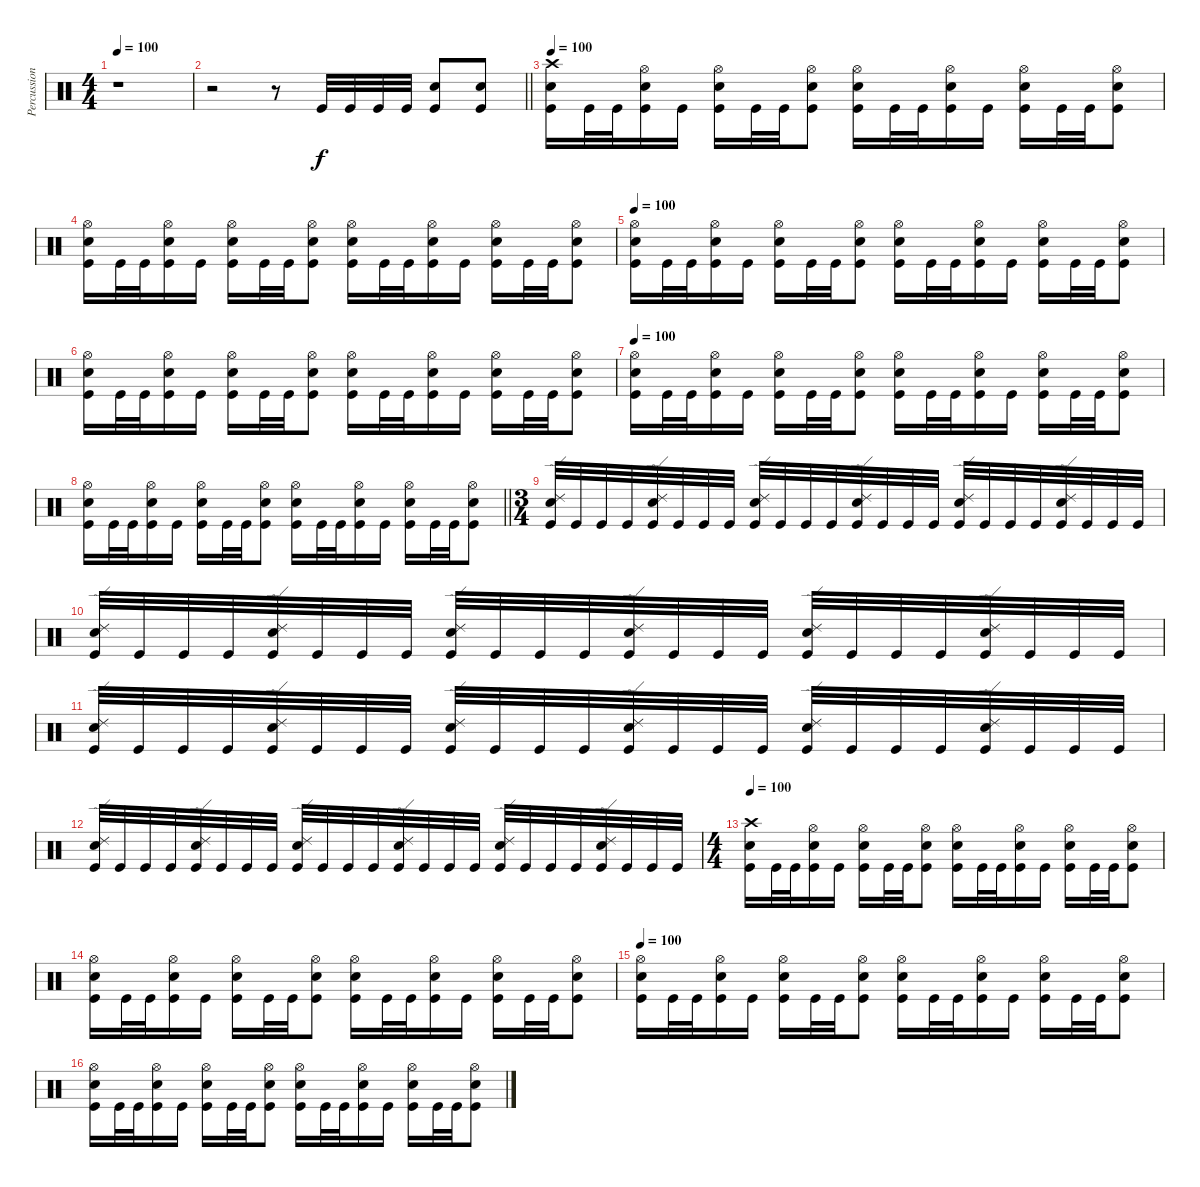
\track ("Percussion" "Percussion") {instrument percussion}
\staff {score}
\articulation defaults
\ts (4 4)
\tempo 100
\clef neutral
\ks c
r.1{dy f} |
\barLineRight lightlight
r.2 r.8 "Kick (hit)".32 "Kick (hit)".32 "Kick (hit)".32 "Kick (hit)".32 ("Snare (hit) 2" "Kick (hit)").8 ("Snare (hit) 2" "Kick (hit)").8 |
\tempo 100
("Crash high (hit)" "Snare (hit) 2" "Kick (hit)").16 "Kick (hit)".32 "Kick (hit)".32 ("Hi-Hat (open)" "Snare (hit) 2" "Kick (hit)").16 "Kick (hit)".16 ("Hi-Hat (open)" "Snare (hit) 2" "Kick (hit)").16 "Kick (hit)".32 "Kick (hit)".32 ("Hi-Hat (open)" "Snare (hit) 2" "Kick (hit)").8 ("Hi-Hat (open)" "Snare (hit) 2" "Kick (hit)").16 "Kick (hit)".32 "Kick (hit)".32 ("Hi-Hat (open)" "Snare (hit) 2" "Kick (hit)").16 "Kick (hit)".16 ("Hi-Hat (open)" "Snare (hit) 2" "Kick (hit)").16 "Kick (hit)".32 "Kick (hit)".32 ("Hi-Hat (open)" "Snare (hit) 2" "Kick (hit)").8 |
("Hi-Hat (open)" "Snare (hit) 2" "Kick (hit)").16 "Kick (hit)".32 "Kick (hit)".32 ("Hi-Hat (open)" "Snare (hit) 2" "Kick (hit)").16 "Kick (hit)".16 ("Hi-Hat (open)" "Snare (hit) 2" "Kick (hit)").16 "Kick (hit)".32 "Kick (hit)".32 ("Hi-Hat (open)" "Snare (hit) 2" "Kick (hit)").8 ("Hi-Hat (open)" "Snare (hit) 2" "Kick (hit)").16 "Kick (hit)".32 "Kick (hit)".32 ("Hi-Hat (open)" "Snare (hit) 2" "Kick (hit)").16 "Kick (hit)".16 ("Hi-Hat (open)" "Snare (hit) 2" "Kick (hit)").16 "Kick (hit)".32 "Kick (hit)".32 ("Hi-Hat (open)" "Snare (hit) 2" "Kick (hit)").8 |
\tempo 100
("Hi-Hat (open)" "Snare (hit) 2" "Kick (hit)").16 "Kick (hit)".32 "Kick (hit)".32 ("Hi-Hat (open)" "Snare (hit) 2" "Kick (hit)").16 "Kick (hit)".16 ("Hi-Hat (open)" "Snare (hit) 2" "Kick (hit)").16 "Kick (hit)".32 "Kick (hit)".32 ("Hi-Hat (open)" "Snare (hit) 2" "Kick (hit)").8 ("Hi-Hat (open)" "Snare (hit) 2" "Kick (hit)").16 "Kick (hit)".32 "Kick (hit)".32 ("Hi-Hat (open)" "Snare (hit) 2" "Kick (hit)").16 "Kick (hit)".16 ("Hi-Hat (open)" "Snare (hit) 2" "Kick (hit)").16 "Kick (hit)".32 "Kick (hit)".32 ("Hi-Hat (open)" "Snare (hit) 2" "Kick (hit)").8 |
("Hi-Hat (open)" "Snare (hit) 2" "Kick (hit)").16 "Kick (hit)".32 "Kick (hit)".32 ("Hi-Hat (open)" "Snare (hit) 2" "Kick (hit)").16 "Kick (hit)".16 ("Hi-Hat (open)" "Snare (hit) 2" "Kick (hit)").16 "Kick (hit)".32 "Kick (hit)".32 ("Hi-Hat (open)" "Snare (hit) 2" "Kick (hit)").8 ("Hi-Hat (open)" "Snare (hit) 2" "Kick (hit)").16 "Kick (hit)".32 "Kick (hit)".32 ("Hi-Hat (open)" "Snare (hit) 2" "Kick (hit)").16 "Kick (hit)".16 ("Hi-Hat (open)" "Snare (hit) 2" "Kick (hit)").16 "Kick (hit)".32 "Kick (hit)".32 ("Hi-Hat (open)" "Snare (hit) 2" "Kick (hit)").8 |
\tempo 100
("Hi-Hat (open)" "Snare (hit) 2" "Kick (hit)").16 "Kick (hit)".32 "Kick (hit)".32 ("Hi-Hat (open)" "Snare (hit) 2" "Kick (hit)").16 "Kick (hit)".16 ("Hi-Hat (open)" "Snare (hit) 2" "Kick (hit)").16 "Kick (hit)".32 "Kick (hit)".32 ("Hi-Hat (open)" "Snare (hit) 2" "Kick (hit)").8 ("Hi-Hat (open)" "Snare (hit) 2" "Kick (hit)").16 "Kick (hit)".32 "Kick (hit)".32 ("Hi-Hat (open)" "Snare (hit) 2" "Kick (hit)").16 "Kick (hit)".16 ("Hi-Hat (open)" "Snare (hit) 2" "Kick (hit)").16 "Kick (hit)".32 "Kick (hit)".32 ("Hi-Hat (open)" "Snare (hit) 2" "Kick (hit)").8 |
\barLineRight lightlight
("Hi-Hat (open)" "Snare (hit) 2" "Kick (hit)").16 "Kick (hit)".32 "Kick (hit)".32 ("Hi-Hat (open)" "Snare (hit) 2" "Kick (hit)").16 "Kick (hit)".16 ("Hi-Hat (open)" "Snare (hit) 2" "Kick (hit)").16 "Kick (hit)".32 "Kick (hit)".32 ("Hi-Hat (open)" "Snare (hit) 2" "Kick (hit)").8 ("Hi-Hat (open)" "Snare (hit) 2" "Kick (hit)").16 "Kick (hit)".32 "Kick (hit)".32 ("Hi-Hat (open)" "Snare (hit) 2" "Kick (hit)").16 "Kick (hit)".16 ("Hi-Hat (open)" "Snare (hit) 2" "Kick (hit)").16 "Kick (hit)".32 "Kick (hit)".32 ("Hi-Hat (open)" "Snare (hit) 2" "Kick (hit)").8 |
\ts (3 4)
("Ride (edge) 2" "Snare (hit) 2" "Kick (hit)").32 "Kick (hit)".32 "Kick (hit)".32 "Kick (hit)".32 ("Ride (edge) 2" "Snare (hit) 2" "Kick (hit)").32 "Kick (hit)".32 "Kick (hit)".32 "Kick (hit)".32 ("Ride (edge) 2" "Snare (hit) 2" "Kick (hit)").32 "Kick (hit)".32 "Kick (hit)".32 "Kick (hit)".32 ("Ride (edge) 2" "Snare (hit) 2" "Kick (hit)").32 "Kick (hit)".32 "Kick (hit)".32 "Kick (hit)".32 ("Ride (edge) 2" "Snare (hit) 2" "Kick (hit)").32 "Kick (hit)".32 "Kick (hit)".32 "Kick (hit)".32 ("Ride (edge) 2" "Snare (hit) 2" "Kick (hit)").32 "Kick (hit)".32 "Kick (hit)".32 "Kick (hit)".32 |
("Ride (edge) 2" "Snare (hit) 2" "Kick (hit)").32 "Kick (hit)".32 "Kick (hit)".32 "Kick (hit)".32 ("Ride (edge) 2" "Snare (hit) 2" "Kick (hit)").32 "Kick (hit)".32 "Kick (hit)".32 "Kick (hit)".32 ("Ride (edge) 2" "Snare (hit) 2" "Kick (hit)").32 "Kick (hit)".32 "Kick (hit)".32 "Kick (hit)".32 ("Ride (edge) 2" "Snare (hit) 2" "Kick (hit)").32 "Kick (hit)".32 "Kick (hit)".32 "Kick (hit)".32 ("Ride (edge) 2" "Snare (hit) 2" "Kick (hit)").32 "Kick (hit)".32 "Kick (hit)".32 "Kick (hit)".32 ("Ride (edge) 2" "Snare (hit) 2" "Kick (hit)").32 "Kick (hit)".32 "Kick (hit)".32 "Kick (hit)".32 |
("Ride (edge) 2" "Snare (hit) 2" "Kick (hit)").32 "Kick (hit)".32 "Kick (hit)".32 "Kick (hit)".32 ("Ride (edge) 2" "Snare (hit) 2" "Kick (hit)").32 "Kick (hit)".32 "Kick (hit)".32 "Kick (hit)".32 ("Ride (edge) 2" "Snare (hit) 2" "Kick (hit)").32 "Kick (hit)".32 "Kick (hit)".32 "Kick (hit)".32 ("Ride (edge) 2" "Snare (hit) 2" "Kick (hit)").32 "Kick (hit)".32 "Kick (hit)".32 "Kick (hit)".32 ("Ride (edge) 2" "Snare (hit) 2" "Kick (hit)").32 "Kick (hit)".32 "Kick (hit)".32 "Kick (hit)".32 ("Ride (edge) 2" "Snare (hit) 2" "Kick (hit)").32 "Kick (hit)".32 "Kick (hit)".32 "Kick (hit)".32 |
("Ride (edge) 2" "Snare (hit) 2" "Kick (hit)").32 "Kick (hit)".32 "Kick (hit)".32 "Kick (hit)".32 ("Ride (edge) 2" "Snare (hit) 2" "Kick (hit)").32 "Kick (hit)".32 "Kick (hit)".32 "Kick (hit)".32 ("Ride (edge) 2" "Snare (hit) 2" "Kick (hit)").32 "Kick (hit)".32 "Kick (hit)".32 "Kick (hit)".32 ("Ride (edge) 2" "Snare (hit) 2" "Kick (hit)").32 "Kick (hit)".32 "Kick (hit)".32 "Kick (hit)".32 ("Ride (edge) 2" "Snare (hit) 2" "Kick (hit)").32 "Kick (hit)".32 "Kick (hit)".32 "Kick (hit)".32 ("Ride (edge) 2" "Snare (hit) 2" "Kick (hit)").32 "Kick (hit)".32 "Kick (hit)".32 "Kick (hit)".32 |
\ts (4 4)
\tempo 100
("Crash high (hit)" "Snare (hit) 2" "Kick (hit)").16 "Kick (hit)".32 "Kick (hit)".32 ("Hi-Hat (open)" "Snare (hit) 2" "Kick (hit)").16 "Kick (hit)".16 ("Hi-Hat (open)" "Snare (hit) 2" "Kick (hit)").16 "Kick (hit)".32 "Kick (hit)".32 ("Hi-Hat (open)" "Snare (hit) 2" "Kick (hit)").8 ("Hi-Hat (open)" "Snare (hit) 2" "Kick (hit)").16 "Kick (hit)".32 "Kick (hit)".32 ("Hi-Hat (open)" "Snare (hit) 2" "Kick (hit)").16 "Kick (hit)".16 ("Hi-Hat (open)" "Snare (hit) 2" "Kick (hit)").16 "Kick (hit)".32 "Kick (hit)".32 ("Hi-Hat (open)" "Snare (hit) 2" "Kick (hit)").8 |
("Hi-Hat (open)" "Snare (hit) 2" "Kick (hit)").16 "Kick (hit)".32 "Kick (hit)".32 ("Hi-Hat (open)" "Snare (hit) 2" "Kick (hit)").16 "Kick (hit)".16 ("Hi-Hat (open)" "Snare (hit) 2" "Kick (hit)").16 "Kick (hit)".32 "Kick (hit)".32 ("Hi-Hat (open)" "Snare (hit) 2" "Kick (hit)").8 ("Hi-Hat (open)" "Snare (hit) 2" "Kick (hit)").16 "Kick (hit)".32 "Kick (hit)".32 ("Hi-Hat (open)" "Snare (hit) 2" "Kick (hit)").16 "Kick (hit)".16 ("Hi-Hat (open)" "Snare (hit) 2" "Kick (hit)").16 "Kick (hit)".32 "Kick (hit)".32 ("Hi-Hat (open)" "Snare (hit) 2" "Kick (hit)").8 |
\tempo 100
("Hi-Hat (open)" "Snare (hit) 2" "Kick (hit)").16 "Kick (hit)".32 "Kick (hit)".32 ("Hi-Hat (open)" "Snare (hit) 2" "Kick (hit)").16 "Kick (hit)".16 ("Hi-Hat (open)" "Snare (hit) 2" "Kick (hit)").16 "Kick (hit)".32 "Kick (hit)".32 ("Hi-Hat (open)" "Snare (hit) 2" "Kick (hit)").8 ("Hi-Hat (open)" "Snare (hit) 2" "Kick (hit)").16 "Kick (hit)".32 "Kick (hit)".32 ("Hi-Hat (open)" "Snare (hit) 2" "Kick (hit)").16 "Kick (hit)".16 ("Hi-Hat (open)" "Snare (hit) 2" "Kick (hit)").16 "Kick (hit)".32 "Kick (hit)".32 ("Hi-Hat (open)" "Snare (hit) 2" "Kick (hit)").8 |
("Hi-Hat (open)" "Snare (hit) 2" "Kick (hit)").16 "Kick (hit)".32 "Kick (hit)".32 ("Hi-Hat (open)" "Snare (hit) 2" "Kick (hit)").16 "Kick (hit)".16 ("Hi-Hat (open)" "Snare (hit) 2" "Kick (hit)").16 "Kick (hit)".32 "Kick (hit)".32 ("Hi-Hat (open)" "Snare (hit) 2" "Kick (hit)").8 ("Hi-Hat (open)" "Snare (hit) 2" "Kick (hit)").16 "Kick (hit)".32 "Kick (hit)".32 ("Hi-Hat (open)" "Snare (hit) 2" "Kick (hit)").16 "Kick (hit)".16 ("Hi-Hat (open)" "Snare (hit) 2" "Kick (hit)").16 "Kick (hit)".32 "Kick (hit)".32 ("Hi-Hat (open)" "Snare (hit) 2" "Kick (hit)").8
